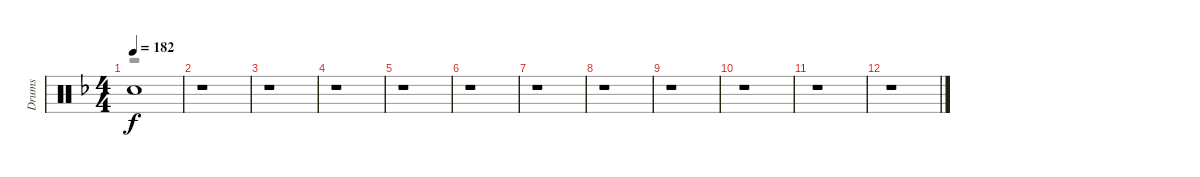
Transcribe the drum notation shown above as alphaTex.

\track ("Drums" "Drums") {instrument percussion}
\staff {score}
\articulation defaults
\voice
\ts (4 4)
\tempo 182
\clef neutral
\ks f "Snare (hit)"{t}.1{dy f}
|
r.1 |
r.1 |
r.1 |
r.1 |
r.1 |
r.1 |
r.1 |
r.1 |
r.1 |
r.1 |
r.1
\voice
\clef neutral
\ottava regular
\simile none
\ks f
r.1{dy f} |
r.1 |
r.1 |
r.1 |
r.1 |
r.1 |
r.1 |
r.1 |
r.1 |
r.1 |
r.1 |
r.1
